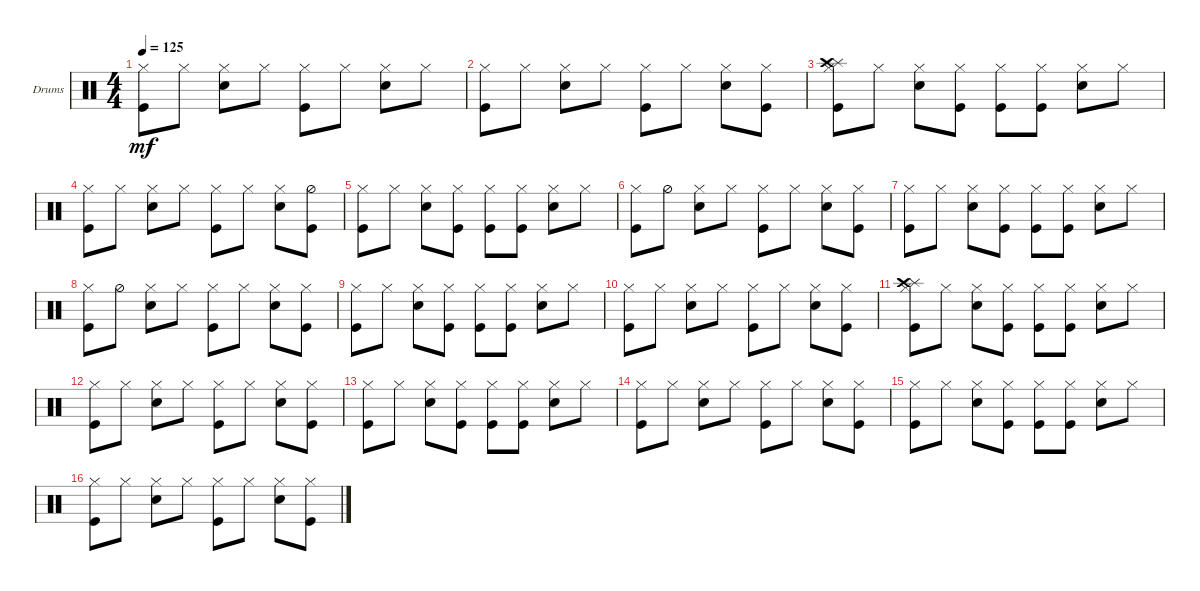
\defaultSystemsLayout 4
\bracketExtendMode groupsimilarinstruments
\firstSystemTrackNameOrientation horizontal
\otherSystemsTrackNameOrientation horizontal
\track ("Drumkit" "Drums") {instrument percussion}
\staff {score}
\articulation defaults
\ts (4 4)
\tempo 125
\clef neutral
\ks c
("Kick (hit)" "Hi-Hat (closed)").8{dy mf} "Hi-Hat (closed)".8 ("Hi-Hat (closed)" "Snare (hit) 2").8 "Hi-Hat (closed)".8 ("Kick (hit)" "Hi-Hat (closed)").8 "Hi-Hat (closed)".8 ("Hi-Hat (closed)" "Snare (hit) 2").8 "Hi-Hat (closed)".8 |
("Kick (hit)" "Hi-Hat (closed)").8 "Hi-Hat (closed)".8 ("Hi-Hat (closed)" "Snare (hit) 2").8 "Hi-Hat (closed)".8 ("Kick (hit)" "Hi-Hat (closed)").8 "Hi-Hat (closed)".8 ("Hi-Hat (closed)" "Snare (hit) 2").8 ("Hi-Hat (closed)" "Kick (hit)").8 |
("Kick (hit)" "Hi-Hat (closed)" "Splash (hit)" "Crash high (hit)").8 "Hi-Hat (closed)".8 ("Hi-Hat (closed)" "Snare (hit) 2").8 ("Hi-Hat (closed)" "Kick (hit)").8 ("Kick (hit)" "Hi-Hat (closed)").8 ("Hi-Hat (closed)" "Kick (hit)").8 ("Hi-Hat (closed)" "Snare (hit) 2").8 "Hi-Hat (closed)".8 |
("Kick (hit)" "Hi-Hat (closed)").8 "Hi-Hat (closed)".8 ("Hi-Hat (closed)" "Snare (hit) 2").8 "Hi-Hat (closed)".8 ("Kick (hit)" "Hi-Hat (closed)").8 "Hi-Hat (closed)".8 ("Hi-Hat (closed)" "Snare (hit) 2").8 ("Hi-Hat (half)" "Kick (hit)").8 |
("Kick (hit)" "Hi-Hat (closed)").8 "Hi-Hat (closed)".8 ("Hi-Hat (closed)" "Snare (hit) 2").8 ("Hi-Hat (closed)" "Kick (hit)").8 ("Kick (hit)" "Hi-Hat (closed)").8 ("Hi-Hat (closed)" "Kick (hit)").8 ("Hi-Hat (closed)" "Snare (hit) 2").8 "Hi-Hat (closed)".8 |
("Kick (hit)" "Hi-Hat (closed)").8 "Hi-Hat (half)".8 ("Hi-Hat (closed)" "Snare (hit) 2").8 "Hi-Hat (closed)".8 ("Kick (hit)" "Hi-Hat (closed)").8 "Hi-Hat (closed)".8 ("Hi-Hat (closed)" "Snare (hit) 2").8 ("Hi-Hat (closed)" "Kick (hit)").8 |
("Kick (hit)" "Hi-Hat (closed)").8 "Hi-Hat (closed)".8 ("Hi-Hat (closed)" "Snare (hit) 2").8 ("Hi-Hat (closed)" "Kick (hit)").8 ("Kick (hit)" "Hi-Hat (closed)").8 ("Hi-Hat (closed)" "Kick (hit)").8 ("Hi-Hat (closed)" "Snare (hit) 2").8 "Hi-Hat (closed)".8 |
("Kick (hit)" "Hi-Hat (closed)").8 "Hi-Hat (half)".8 ("Hi-Hat (closed)" "Snare (hit) 2").8 "Hi-Hat (closed)".8 ("Kick (hit)" "Hi-Hat (closed)").8 "Hi-Hat (closed)".8 ("Hi-Hat (closed)" "Snare (hit) 2").8 ("Hi-Hat (closed)" "Kick (hit)").8 |
("Kick (hit)" "Hi-Hat (closed)").8 "Hi-Hat (closed)".8 ("Hi-Hat (closed)" "Snare (hit) 2").8 ("Hi-Hat (closed)" "Kick (hit)").8 ("Kick (hit)" "Hi-Hat (closed)").8 ("Hi-Hat (closed)" "Kick (hit)").8 ("Hi-Hat (closed)" "Snare (hit) 2").8 "Hi-Hat (closed)".8 |
("Kick (hit)" "Hi-Hat (closed)").8 "Hi-Hat (closed)".8 ("Hi-Hat (closed)" "Snare (hit) 2").8 "Hi-Hat (closed)".8 ("Kick (hit)" "Hi-Hat (closed)").8 "Hi-Hat (closed)".8 ("Hi-Hat (closed)" "Snare (hit) 2").8 ("Hi-Hat (closed)" "Kick (hit)").8 |
("Kick (hit)" "Hi-Hat (closed)" "Splash (hit)" "Crash high (hit)").8 "Hi-Hat (closed)".8 ("Hi-Hat (closed)" "Snare (hit) 2").8 ("Hi-Hat (closed)" "Kick (hit)").8 ("Kick (hit)" "Hi-Hat (closed)").8 ("Hi-Hat (closed)" "Kick (hit)").8 ("Hi-Hat (closed)" "Snare (hit) 2").8 "Hi-Hat (closed)".8 |
("Kick (hit)" "Hi-Hat (closed)").8 "Hi-Hat (closed)".8 ("Hi-Hat (closed)" "Snare (hit) 2").8 "Hi-Hat (closed)".8 ("Kick (hit)" "Hi-Hat (closed)").8 "Hi-Hat (closed)".8 ("Hi-Hat (closed)" "Snare (hit) 2").8 ("Hi-Hat (closed)" "Kick (hit)").8 |
("Kick (hit)" "Hi-Hat (closed)").8 "Hi-Hat (closed)".8 ("Hi-Hat (closed)" "Snare (hit) 2").8 ("Hi-Hat (closed)" "Kick (hit)").8 ("Kick (hit)" "Hi-Hat (closed)").8 ("Hi-Hat (closed)" "Kick (hit)").8 ("Hi-Hat (closed)" "Snare (hit) 2").8 "Hi-Hat (closed)".8 |
("Kick (hit)" "Hi-Hat (closed)").8 "Hi-Hat (closed)".8 ("Hi-Hat (closed)" "Snare (hit) 2").8 "Hi-Hat (closed)".8 ("Kick (hit)" "Hi-Hat (closed)").8 "Hi-Hat (closed)".8 ("Hi-Hat (closed)" "Snare (hit) 2").8 ("Hi-Hat (closed)" "Kick (hit)").8 |
("Kick (hit)" "Hi-Hat (closed)").8 "Hi-Hat (closed)".8 ("Hi-Hat (closed)" "Snare (hit) 2").8 ("Hi-Hat (closed)" "Kick (hit)").8 ("Kick (hit)" "Hi-Hat (closed)").8 ("Hi-Hat (closed)" "Kick (hit)").8 ("Hi-Hat (closed)" "Snare (hit) 2").8 "Hi-Hat (closed)".8 |
("Kick (hit)" "Hi-Hat (closed)").8 "Hi-Hat (closed)".8 ("Hi-Hat (closed)" "Snare (hit) 2").8 "Hi-Hat (closed)".8 ("Kick (hit)" "Hi-Hat (closed)").8 "Hi-Hat (closed)".8 ("Hi-Hat (closed)" "Snare (hit) 2").8 ("Hi-Hat (closed)" "Kick (hit)").8
